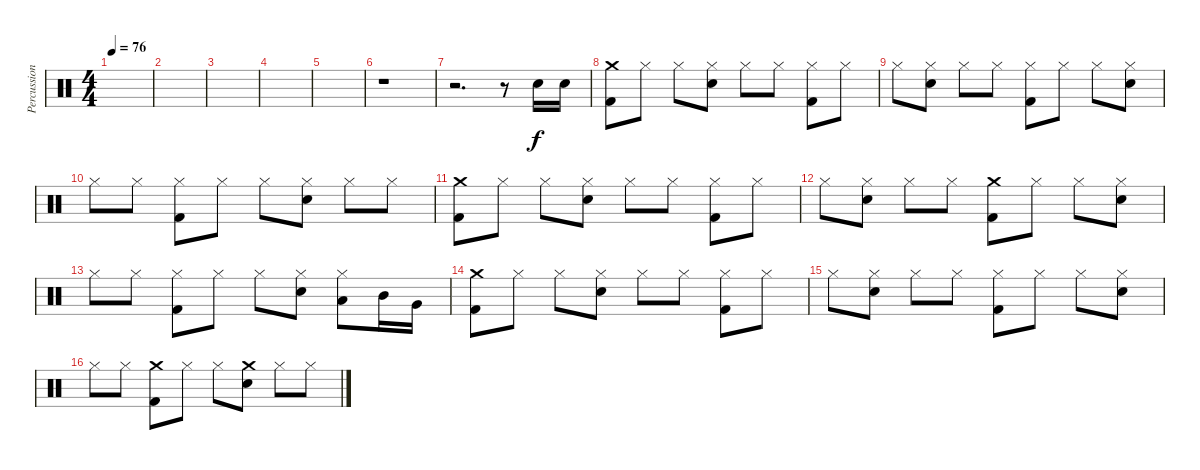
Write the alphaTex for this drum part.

\track ("Percussions" "Percussion") {instrument percussion}
\staff {score}
\articulation defaults
\ts (4 4)
\tempo 76
\clef neutral
\ks c
|
|
|
|
|
r.1 |
r.2{d} r.8 "Electric Snare (hit)".16 "Electric Snare (hit)".16 |
("Crash medium (hit)" "Kick (hit) 2").8 "Hi-Hat (closed)".8 "Hi-Hat (closed)".8 ("Hi-Hat (closed)" "Electric Snare (hit)").8 "Hi-Hat (closed)".8 "Hi-Hat (closed)".8 ("Hi-Hat (closed)" "Kick (hit) 2").8 "Hi-Hat (closed)".8 |
"Hi-Hat (closed)".8 ("Hi-Hat (closed)" "Electric Snare (hit)").8 "Hi-Hat (closed)".8 "Hi-Hat (closed)".8 ("Hi-Hat (closed)" "Kick (hit) 2").8 "Hi-Hat (closed)".8 "Hi-Hat (closed)".8 ("Hi-Hat (closed)" "Electric Snare (hit)").8 |
"Hi-Hat (closed)".8 "Hi-Hat (closed)".8 ("Hi-Hat (closed)" "Kick (hit) 2").8 "Hi-Hat (closed)".8 "Hi-Hat (closed)".8 ("Hi-Hat (closed)" "Electric Snare (hit)").8 "Hi-Hat (closed)".8 "Hi-Hat (closed)".8 |
("Crash medium (hit)" "Kick (hit) 2").8 "Hi-Hat (closed)".8 "Hi-Hat (closed)".8 ("Hi-Hat (closed)" "Electric Snare (hit)").8 "Hi-Hat (closed)".8 "Hi-Hat (closed)".8 ("Hi-Hat (closed)" "Kick (hit) 2").8 "Hi-Hat (closed)".8 |
"Hi-Hat (closed)".8 ("Hi-Hat (closed)" "Electric Snare (hit)").8 "Hi-Hat (closed)".8 "Hi-Hat (closed)".8 ("Crash medium (hit)" "Kick (hit) 2").8 "Hi-Hat (closed)".8 "Hi-Hat (closed)".8 ("Hi-Hat (closed)" "Electric Snare (hit)").8 |
"Hi-Hat (closed)".8 "Hi-Hat (closed)".8 ("Hi-Hat (closed)" "Kick (hit) 2").8 "Hi-Hat (closed)".8 "Hi-Hat (closed)".8 ("Hi-Hat (closed)" "Electric Snare (hit)").8 ("Hi-Hat (closed)" "Low Tom (hit)").8 "Mid Tom (hit)".16 "Very Low Tom (hit)".16 |
("Crash medium (hit)" "Kick (hit) 2").8 "Hi-Hat (closed)".8 "Hi-Hat (closed)".8 ("Hi-Hat (closed)" "Electric Snare (hit)").8 "Hi-Hat (closed)".8 "Hi-Hat (closed)".8 ("Hi-Hat (closed)" "Kick (hit) 2").8 "Hi-Hat (closed)".8 |
"Hi-Hat (closed)".8 ("Hi-Hat (closed)" "Electric Snare (hit)").8 "Hi-Hat (closed)".8 "Hi-Hat (closed)".8 ("Hi-Hat (closed)" "Kick (hit) 2").8 "Hi-Hat (closed)".8 "Hi-Hat (closed)".8 ("Hi-Hat (closed)" "Electric Snare (hit)").8 |
"Hi-Hat (closed)".8 "Hi-Hat (closed)".8 ("Crash medium (hit)" "Kick (hit) 2").8 "Hi-Hat (closed)".8 "Hi-Hat (closed)".8 ("Crash medium (hit)" "Electric Snare (hit)").8 "Hi-Hat (closed)".8 "Hi-Hat (closed)".8
